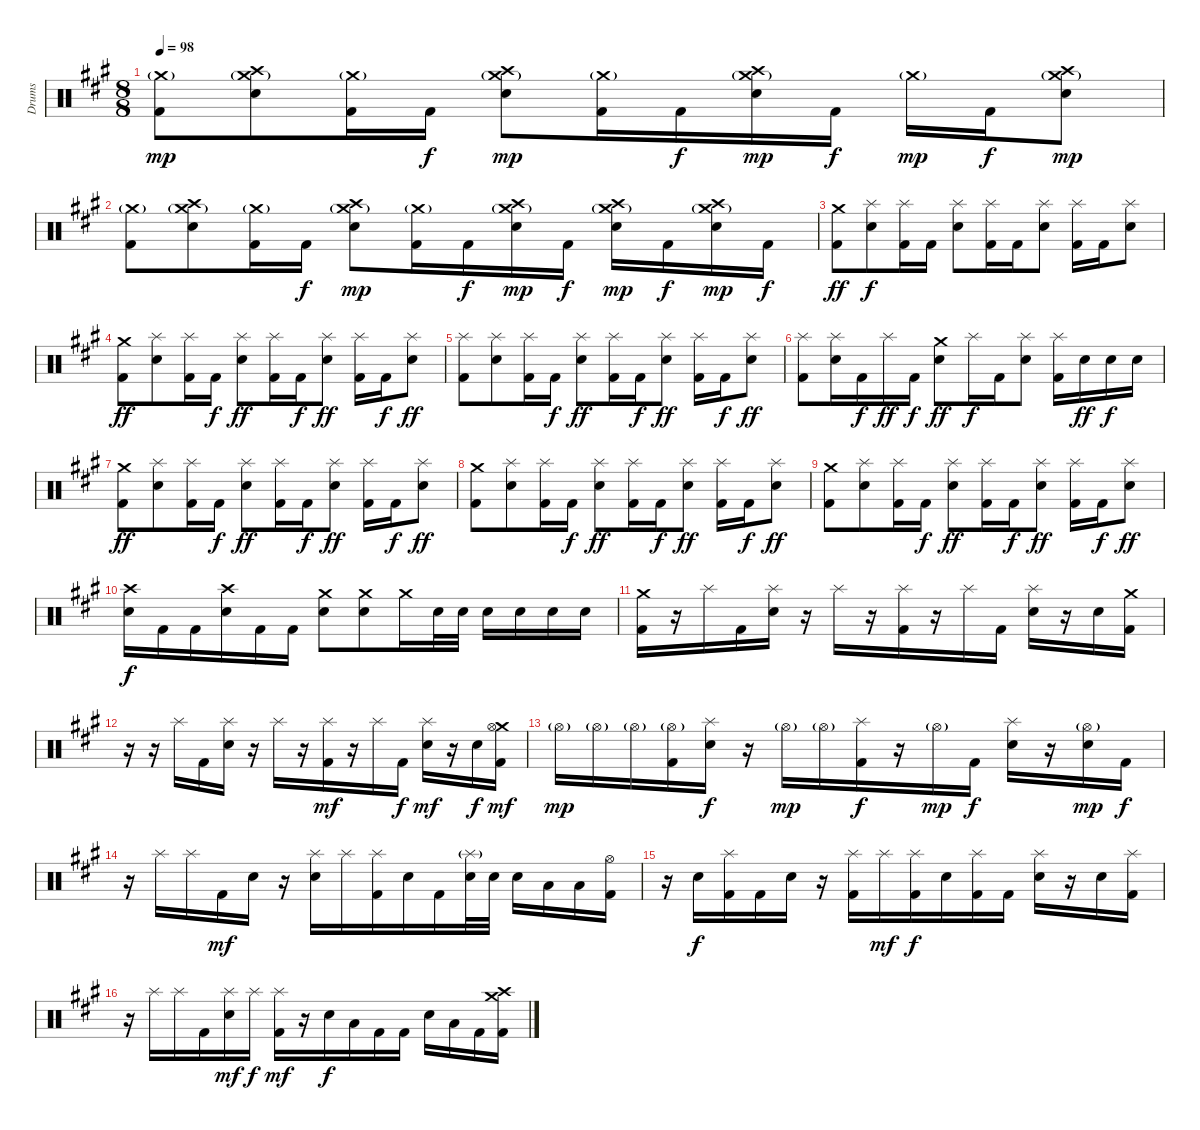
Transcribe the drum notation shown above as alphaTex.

\track ("Drums" "Drums") {instrument percussion}
\staff {score}
\articulation defaults
\ts (8 8)
\tempo 98
\clef neutral
\ks a
("Crash medium (hit)"{g} "Kick (hit) 2").8{dy mp} ("Crash high (hit)" "Crash medium (hit)"{g} "Snare (hit) 2").8 ("Crash medium (hit)"{g} "Kick (hit) 2").16 "Kick (hit) 2".16{dy f} ("Crash high (hit)" "Crash medium (hit)"{g} "Snare (hit) 2").8{dy mp} ("Crash medium (hit)"{g} "Kick (hit) 2").16 "Kick (hit) 2".16{dy f} ("Crash high (hit)" "Crash medium (hit)"{g} "Snare (hit) 2").16{dy mp} "Kick (hit) 2".16{dy f} "Crash medium (hit)"{g}.16{dy mp} "Kick (hit) 2".16{dy f} ("Crash high (hit)" "Crash medium (hit)"{g} "Snare (hit) 2").8{dy mp} |
("Crash medium (hit)"{g} "Kick (hit) 2").8 ("Crash high (hit)" "Crash medium (hit)"{g} "Snare (hit) 2").8 ("Crash medium (hit)"{g} "Kick (hit) 2").16 "Kick (hit) 2".16{dy f} ("Crash high (hit)" "Crash medium (hit)"{g} "Snare (hit) 2").8{dy mp} ("Crash medium (hit)"{g} "Kick (hit) 2").16 "Kick (hit) 2".16{dy f} ("Crash high (hit)" "Crash medium (hit)"{g} "Snare (hit) 2").16{dy mp} "Kick (hit) 2".16{dy f} ("Crash high (hit)" "Crash medium (hit)"{g} "Snare (hit) 2").16{dy mp} "Kick (hit) 2".16{dy f} ("Crash high (hit)" "Crash medium (hit)"{g} "Snare (hit) 2").16{dy mp} "Kick (hit) 2".16{dy f} |
("Crash medium (hit)" "Kick (hit) 2").8{dy ff} ("Splash (hit)" "Snare (hit) 2").8{dy f} ("Splash (hit)" "Kick (hit) 2").16 "Kick (hit) 2".16 ("Splash (hit)" "Snare (hit) 2").8 ("Splash (hit)" "Kick (hit) 2").16 "Kick (hit) 2".16 ("Splash (hit)" "Snare (hit) 2").8 ("Splash (hit)" "Kick (hit) 2").16 "Kick (hit) 2".16 ("Splash (hit)" "Snare (hit) 2").8 |
("Crash medium (hit)" "Kick (hit) 2").8{dy ff} ("Splash (hit)" "Snare (hit) 2").8 ("Splash (hit)" "Kick (hit) 2").16 "Kick (hit) 2".16{dy f} ("Splash (hit)" "Snare (hit) 2").8{dy ff} ("Splash (hit)" "Kick (hit) 2").16 "Kick (hit) 2".16{dy f} ("Splash (hit)" "Snare (hit) 2").8{dy ff} ("Splash (hit)" "Kick (hit) 2").16 "Kick (hit) 2".16{dy f} ("Splash (hit)" "Snare (hit) 2").8{dy ff} |
("Splash (hit)" "Kick (hit) 2").8 ("Splash (hit)" "Snare (hit) 2").8 ("Splash (hit)" "Kick (hit) 2").16 "Kick (hit) 2".16{dy f} ("Splash (hit)" "Snare (hit) 2").8{dy ff} ("Splash (hit)" "Kick (hit) 2").16 "Kick (hit) 2".16{dy f} ("Splash (hit)" "Snare (hit) 2").8{dy ff} ("Splash (hit)" "Kick (hit) 2").16 "Kick (hit) 2".16{dy f} ("Splash (hit)" "Snare (hit) 2").8{dy ff} |
("Splash (hit)" "Kick (hit) 2").8 ("Splash (hit)" "Snare (hit) 2").16 "Kick (hit) 2".16{dy f} "Splash (hit)".16{dy ff} "Kick (hit) 2".16{dy f} ("Crash medium (hit)" "Snare (hit) 2").8{dy ff} "Splash (hit)".16{dy f} "Kick (hit) 2".16 ("Splash (hit)" "Snare (hit) 2").8 ("Splash (hit)" "Kick (hit) 2").16 "Snare (hit) 2".16{dy ff} "Snare (hit) 2".16{dy f} "Snare (hit) 2".16 |
("Crash medium (hit)" "Kick (hit) 2").8{dy ff} ("Splash (hit)" "Snare (hit) 2").8 ("Splash (hit)" "Kick (hit) 2").16 "Kick (hit) 2".16{dy f} ("Splash (hit)" "Snare (hit) 2").8{dy ff} ("Splash (hit)" "Kick (hit) 2").16 "Kick (hit) 2".16{dy f} ("Splash (hit)" "Snare (hit) 2").8{dy ff} ("Splash (hit)" "Kick (hit) 2").16 "Kick (hit) 2".16{dy f} ("Splash (hit)" "Snare (hit) 2").8{dy ff} |
("Crash medium (hit)" "Kick (hit) 2").8 ("Splash (hit)" "Snare (hit) 2").8 ("Splash (hit)" "Kick (hit) 2").16 "Kick (hit) 2".16{dy f} ("Splash (hit)" "Snare (hit) 2").8{dy ff} ("Splash (hit)" "Kick (hit) 2").16 "Kick (hit) 2".16{dy f} ("Splash (hit)" "Snare (hit) 2").8{dy ff} ("Splash (hit)" "Kick (hit) 2").16 "Kick (hit) 2".16{dy f} ("Splash (hit)" "Snare (hit) 2").8{dy ff} |
("Crash medium (hit)" "Kick (hit) 2").8 ("Splash (hit)" "Snare (hit) 2").8 ("Splash (hit)" "Kick (hit) 2").16 "Kick (hit) 2".16{dy f} ("Splash (hit)" "Snare (hit) 2").8{dy ff} ("Splash (hit)" "Kick (hit) 2").16 "Kick (hit) 2".16{dy f} ("Splash (hit)" "Snare (hit) 2").8{dy ff} ("Splash (hit)" "Kick (hit) 2").16 "Kick (hit) 2".16{dy f} ("Splash (hit)" "Snare (hit) 2").8{dy ff} |
("Crash high (hit)" "Snare (hit) 2").16{dy f} "Kick (hit) 2".16 "Kick (hit) 2".16 ("Crash high (hit)" "Snare (hit) 2").16 "Kick (hit) 2".16 "Kick (hit) 2".16 ("Crash medium (hit)" "Snare (hit) 2").8 ("Crash medium (hit)" "Snare (hit) 2").8 "Crash medium (hit)".16 "Snare (hit) 2".32 "Snare (hit) 2".32 "Snare (hit) 2".16 "Snare (hit) 2".16 "Snare (hit) 2".16 "Snare (hit) 2".16 |
("Crash medium (hit)" "Kick (hit) 2").16 r.16 "Splash (hit)".16 "Kick (hit) 2".16 ("Splash (hit)" "Snare (hit) 2").16 r.16 "Splash (hit)".16 r.16 ("Splash (hit)" "Kick (hit) 2").16 r.16 "Splash (hit)".16 "Kick (hit) 2".16 ("Splash (hit)" "Snare (hit) 2").16 r.16 "Snare (hit) 2".16 ("Crash medium (hit)" "Kick (hit) 2").16 |
r.16 r.16 "Splash (hit)".16 "Kick (hit) 2".16 ("Splash (hit)" "Snare (hit) 2").16 r.16 "Splash (hit)".16 r.16 ("Splash (hit)" "Kick (hit) 2").16{dy mf} r.16 "Splash (hit)".16 "Kick (hit) 2".16{dy f} ("Splash (hit)" "Snare (hit) 2").16{dy mf} r.16 "Snare (hit) 2".16{dy f} ("Crash medium (hit)" "Hi-Hat (open)" "Kick (hit) 2").16{dy mf} |
"Hi-Hat (open)"{g}.16{dy mp} "Hi-Hat (open)"{g}.16 "Hi-Hat (open)"{g}.16 ("Hi-Hat (open)"{g} "Kick (hit) 2").16 ("Splash (hit)" "Snare (hit) 2").16{dy f} r.16 "Hi-Hat (open)"{g}.16{dy mp} "Hi-Hat (open)"{g}.16 ("Splash (hit)" "Kick (hit) 2").16{dy f} r.16 "Hi-Hat (open)"{g}.16{dy mp} "Kick (hit) 2".16{dy f} ("Splash (hit)" "Snare (hit) 2").16 r.16 ("Hi-Hat (open)"{g} "Snare (hit) 2").16{dy mp} "Kick (hit) 2".16{dy f} |
r.16 "Splash (hit)".16 "Splash (hit)".16 "Kick (hit) 2".16{dy mf} "Snare (hit) 2".16 r.16 ("Splash (hit)" "Snare (hit) 2").16 "Splash (hit)".16 ("Splash (hit)" "Kick (hit) 2").16 "Snare (hit) 2".16 "Kick (hit) 2".16 ("Splash (hit)"{g} "Snare (hit) 2").32 "Snare (hit) 2".32 "Snare (hit) 2".16 "Low Tom (hit)".16 "Low Tom (hit)".16 ("Hi-Hat (open)" "Kick (hit) 2").16 |
r.16 "Snare (hit) 2".16{dy f} ("Splash (hit)" "Kick (hit) 2").16 "Kick (hit) 2".16 "Snare (hit) 2".16 r.16 ("Splash (hit)" "Kick (hit) 2").16 "Splash (hit)".16{dy mf} ("Splash (hit)" "Kick (hit) 2").16{dy f} "Snare (hit) 2".16 ("Splash (hit)" "Kick (hit) 2").16 "Kick (hit) 2".16 ("Splash (hit)" "Snare (hit) 2").16 r.16 "Snare (hit) 2".16 ("Splash (hit)" "Kick (hit) 2").16 |
r.16 "Splash (hit)".16 "Splash (hit)".16 "Kick (hit) 2".16 ("Splash (hit)" "Snare (hit) 2").16{dy mf} "Splash (hit)".16{dy f} ("Splash (hit)" "Kick (hit) 2").16{dy mf} r.16 "Snare (hit) 2".16{dy f} "Low Tom (hit)".16 "Kick (hit) 2".16 "Kick (hit) 2".16 "Snare (hit) 2".16 "Low Tom (hit)".16 "Kick (hit) 2".16 ("Crash high (hit)" "Crash medium (hit)" "Kick (hit) 2").16
